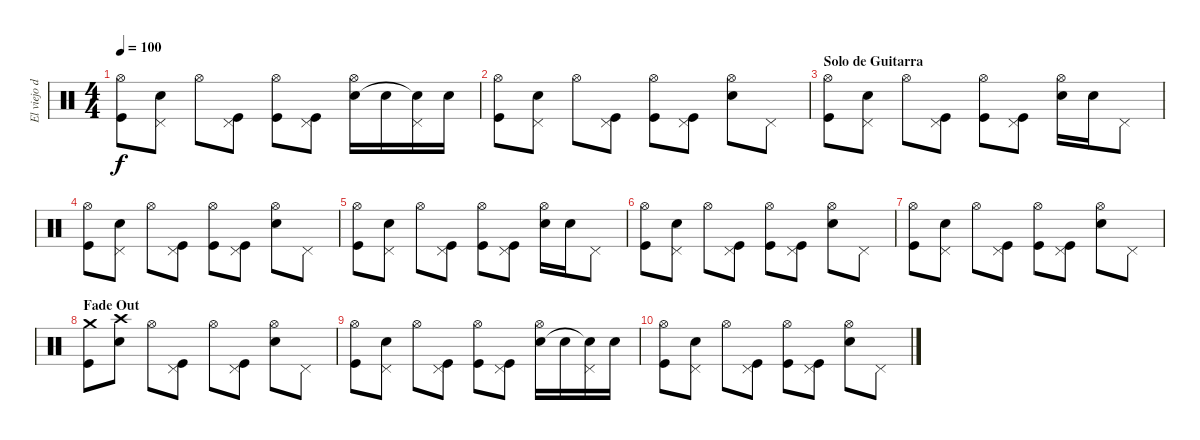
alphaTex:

\track ("El viejo del baston" "El viejo d") {instrument percussion}
\staff {score}
\articulation defaults
\ts (4 4)
\tempo 100
\clef neutral
\ks c
("Hi-Hat (open)" "Kick (hit)").8{dy f} ("Pedal Hi-Hat (hit)" "Snare (hit) 2").8 "Hi-Hat (open)".8 ("Pedal Hi-Hat (hit)" "Kick (hit)").8 ("Hi-Hat (open)" "Kick (hit)").8 ("Pedal Hi-Hat (hit)" "Kick (hit)").8 ("Hi-Hat (open)" "Snare (hit) 2").16 "Snare (hit) 2".16 ("Pedal Hi-Hat (hit)" "Snare (hit) 2"{t}).16 "Snare (hit) 2".16 |
("Hi-Hat (open)" "Kick (hit)").8 ("Pedal Hi-Hat (hit)" "Snare (hit) 2").8 "Hi-Hat (open)".8 ("Pedal Hi-Hat (hit)" "Kick (hit)").8 ("Hi-Hat (open)" "Kick (hit)").8 ("Pedal Hi-Hat (hit)" "Kick (hit)").8 ("Hi-Hat (open)" "Snare (hit) 2").8 "Pedal Hi-Hat (hit)".8 |
\section ("" "Solo de Guitarra")
("Hi-Hat (open)" "Kick (hit)").8 ("Pedal Hi-Hat (hit)" "Snare (hit) 2").8 "Hi-Hat (open)".8 ("Pedal Hi-Hat (hit)" "Kick (hit)").8 ("Hi-Hat (open)" "Kick (hit)").8 ("Pedal Hi-Hat (hit)" "Kick (hit)").8 ("Hi-Hat (open)" "Snare (hit) 2").16 "Snare (hit) 2".16 "Pedal Hi-Hat (hit)".8 |
("Hi-Hat (open)" "Kick (hit)").8 ("Pedal Hi-Hat (hit)" "Snare (hit) 2").8 "Hi-Hat (open)".8 ("Pedal Hi-Hat (hit)" "Kick (hit)").8 ("Hi-Hat (open)" "Kick (hit)").8 ("Pedal Hi-Hat (hit)" "Kick (hit)").8 ("Hi-Hat (open)" "Snare (hit) 2").8 "Pedal Hi-Hat (hit)".8 |
("Hi-Hat (open)" "Kick (hit)").8 ("Pedal Hi-Hat (hit)" "Snare (hit) 2").8 "Hi-Hat (open)".8 ("Pedal Hi-Hat (hit)" "Kick (hit)").8 ("Hi-Hat (open)" "Kick (hit)").8 ("Pedal Hi-Hat (hit)" "Kick (hit)").8 ("Hi-Hat (open)" "Snare (hit) 2").16 "Snare (hit) 2".16 "Pedal Hi-Hat (hit)".8 |
("Hi-Hat (open)" "Kick (hit)").8 ("Pedal Hi-Hat (hit)" "Snare (hit) 2").8 "Hi-Hat (open)".8 ("Pedal Hi-Hat (hit)" "Kick (hit)").8 ("Hi-Hat (open)" "Kick (hit)").8 ("Pedal Hi-Hat (hit)" "Kick (hit)").8 ("Hi-Hat (open)" "Snare (hit) 2").8 "Pedal Hi-Hat (hit)".8 |
("Hi-Hat (open)" "Kick (hit)").8 ("Pedal Hi-Hat (hit)" "Snare (hit) 2").8 "Hi-Hat (open)".8 ("Pedal Hi-Hat (hit)" "Kick (hit)").8 ("Hi-Hat (open)" "Kick (hit)").8 ("Pedal Hi-Hat (hit)" "Kick (hit)").8 ("Hi-Hat (open)" "Snare (hit) 2").8 "Pedal Hi-Hat (hit)".8 |
\section ("" "Fade Out")
("Crash medium (hit)" "Kick (hit)").8 ("Crash high (hit)" "Snare (hit) 2").8 "Hi-Hat (open)".8 ("Pedal Hi-Hat (hit)" "Kick (hit)").8 "Hi-Hat (open)".8 ("Pedal Hi-Hat (hit)" "Kick (hit)").8 ("Hi-Hat (open)" "Snare (hit) 2").8 "Pedal Hi-Hat (hit)".8 |
("Hi-Hat (open)" "Kick (hit)").8 ("Pedal Hi-Hat (hit)" "Snare (hit) 2").8 "Hi-Hat (open)".8 ("Pedal Hi-Hat (hit)" "Kick (hit)").8 ("Hi-Hat (open)" "Kick (hit)").8 ("Pedal Hi-Hat (hit)" "Kick (hit)").8 ("Hi-Hat (open)" "Snare (hit) 2").16 "Snare (hit) 2".16 ("Pedal Hi-Hat (hit)" "Snare (hit) 2"{t}).16 "Snare (hit) 2".16 |
("Hi-Hat (open)" "Kick (hit)").8 ("Pedal Hi-Hat (hit)" "Snare (hit) 2").8 "Hi-Hat (open)".8 ("Pedal Hi-Hat (hit)" "Kick (hit)").8 ("Hi-Hat (open)" "Kick (hit)").8 ("Pedal Hi-Hat (hit)" "Kick (hit)").8 ("Hi-Hat (open)" "Snare (hit) 2").8 "Pedal Hi-Hat (hit)".8
